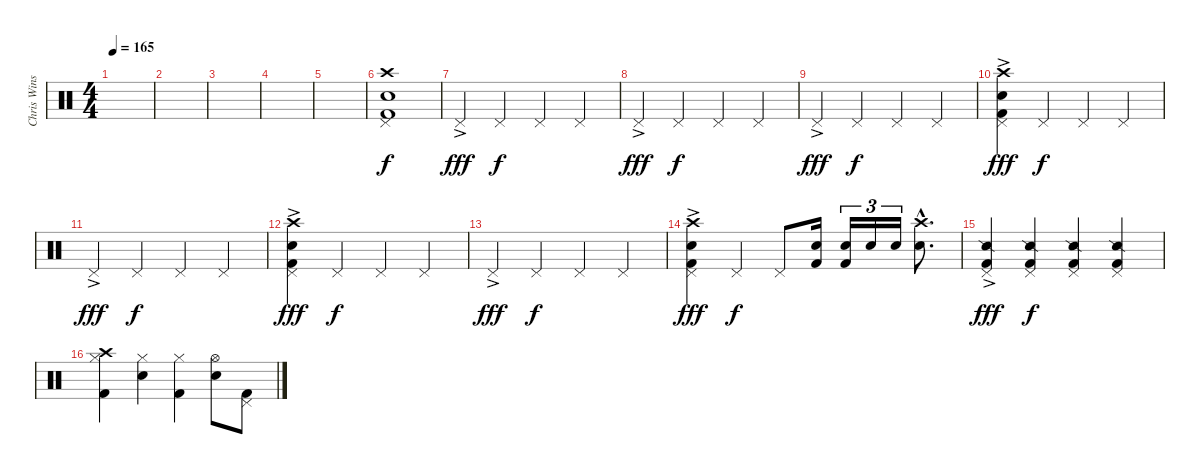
\track ("Chris Winship (Bass)" "Chris Wins") {instrument percussion}
\staff {score}
\articulation defaults
\ts (4 4)
\tempo 165
\clef neutral
\ks c
|
|
|
|
|
("Crash high (hit)" "Snare (hit) 2" "Kick (hit) 2" "Pedal Hi-Hat (hit)").1 |
"Pedal Hi-Hat (hit)"{ac}.4{dy fff} "Pedal Hi-Hat (hit)".4{dy f} "Pedal Hi-Hat (hit)".4 "Pedal Hi-Hat (hit)".4 |
"Pedal Hi-Hat (hit)"{ac}.4{dy fff} "Pedal Hi-Hat (hit)".4{dy f} "Pedal Hi-Hat (hit)".4 "Pedal Hi-Hat (hit)".4 |
"Pedal Hi-Hat (hit)"{ac}.4{dy fff} "Pedal Hi-Hat (hit)".4{dy f} "Pedal Hi-Hat (hit)".4 "Pedal Hi-Hat (hit)".4 |
("Crash high (hit)" "Kick (hit) 2" "Snare (hit) 2" "Pedal Hi-Hat (hit)"{ac}).4{dy fff} "Pedal Hi-Hat (hit)".4{dy f} "Pedal Hi-Hat (hit)".4 "Pedal Hi-Hat (hit)".4 |
"Pedal Hi-Hat (hit)"{ac}.4{dy fff} "Pedal Hi-Hat (hit)".4{dy f} "Pedal Hi-Hat (hit)".4 "Pedal Hi-Hat (hit)".4 |
("Crash high (hit)" "Kick (hit) 2" "Snare (hit) 2" "Pedal Hi-Hat (hit)"{ac}).4{dy fff} "Pedal Hi-Hat (hit)".4{dy f} "Pedal Hi-Hat (hit)".4 "Pedal Hi-Hat (hit)".4 |
"Pedal Hi-Hat (hit)"{ac}.4{dy fff} "Pedal Hi-Hat (hit)".4{dy f} "Pedal Hi-Hat (hit)".4 "Pedal Hi-Hat (hit)".4 |
("Crash high (hit)" "Kick (hit) 2" "Snare (hit) 2" "Pedal Hi-Hat (hit)"{ac}).4{dy fff} "Pedal Hi-Hat (hit)".4{dy f} "Pedal Hi-Hat (hit)".8 ("Snare (hit) 2" "Kick (hit) 2").16 ("Snare (hit) 2" "Kick (hit) 2").16{tu (3 2)} "Snare (hit) 2".16{tu (3 2)} "Snare (hit) 2".16{tu (3 2)} ("Crash high (hit)"{hac} "Snare (hit) 2"{hac}).8{d} |
("Snare (side stick) 2" "Pedal Hi-Hat (hit)"{ac} "Kick (hit) 2").4{dy fff} ("Snare (side stick) 2" "Pedal Hi-Hat (hit)" "Kick (hit) 2").4{dy f} ("Snare (side stick) 2" "Pedal Hi-Hat (hit)" "Kick (hit) 2").4 ("Snare (side stick) 2" "Pedal Hi-Hat (hit)" "Kick (hit) 2").4 |
("Crash high (hit)" "Hi-Hat (closed)" "Kick (hit) 2").4 ("Hi-Hat (closed)" "Snare (hit) 2").4 ("Hi-Hat (closed)" "Kick (hit) 2").4 ("Hi-Hat (open)" "Snare (hit) 2").8 ("Pedal Hi-Hat (hit)" "Kick (hit) 2").8
